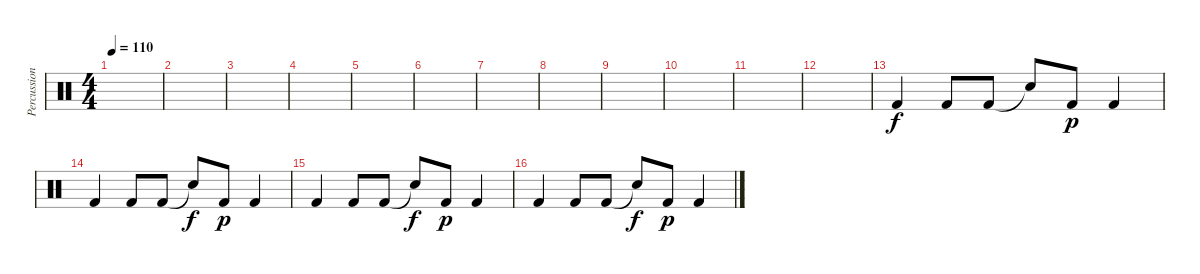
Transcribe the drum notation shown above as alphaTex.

\track ("Percussions" "Percussion") {instrument percussion}
\staff {score}
\articulation defaults
\ts (4 4)
\tempo 110
\clef neutral
\ks c
|
|
|
|
|
|
|
|
|
|
|
|
"Kick (hit) 2".4 "Kick (hit) 2".8 "Kick (hit) 2".8 "Snare (hit)"{t}.8{dy f} "Kick (hit) 2".8{dy p} "Kick (hit) 2".4 |
"Kick (hit) 2".4 "Kick (hit) 2".8 "Kick (hit) 2".8 "Snare (hit)"{t}.8{dy f} "Kick (hit) 2".8{dy p} "Kick (hit) 2".4 |
"Kick (hit) 2".4 "Kick (hit) 2".8 "Kick (hit) 2".8 "Snare (hit)"{t}.8{dy f} "Kick (hit) 2".8{dy p} "Kick (hit) 2".4 |
"Kick (hit) 2".4 "Kick (hit) 2".8 "Kick (hit) 2".8 "Snare (hit)"{t}.8{dy f} "Kick (hit) 2".8{dy p} "Kick (hit) 2".4
